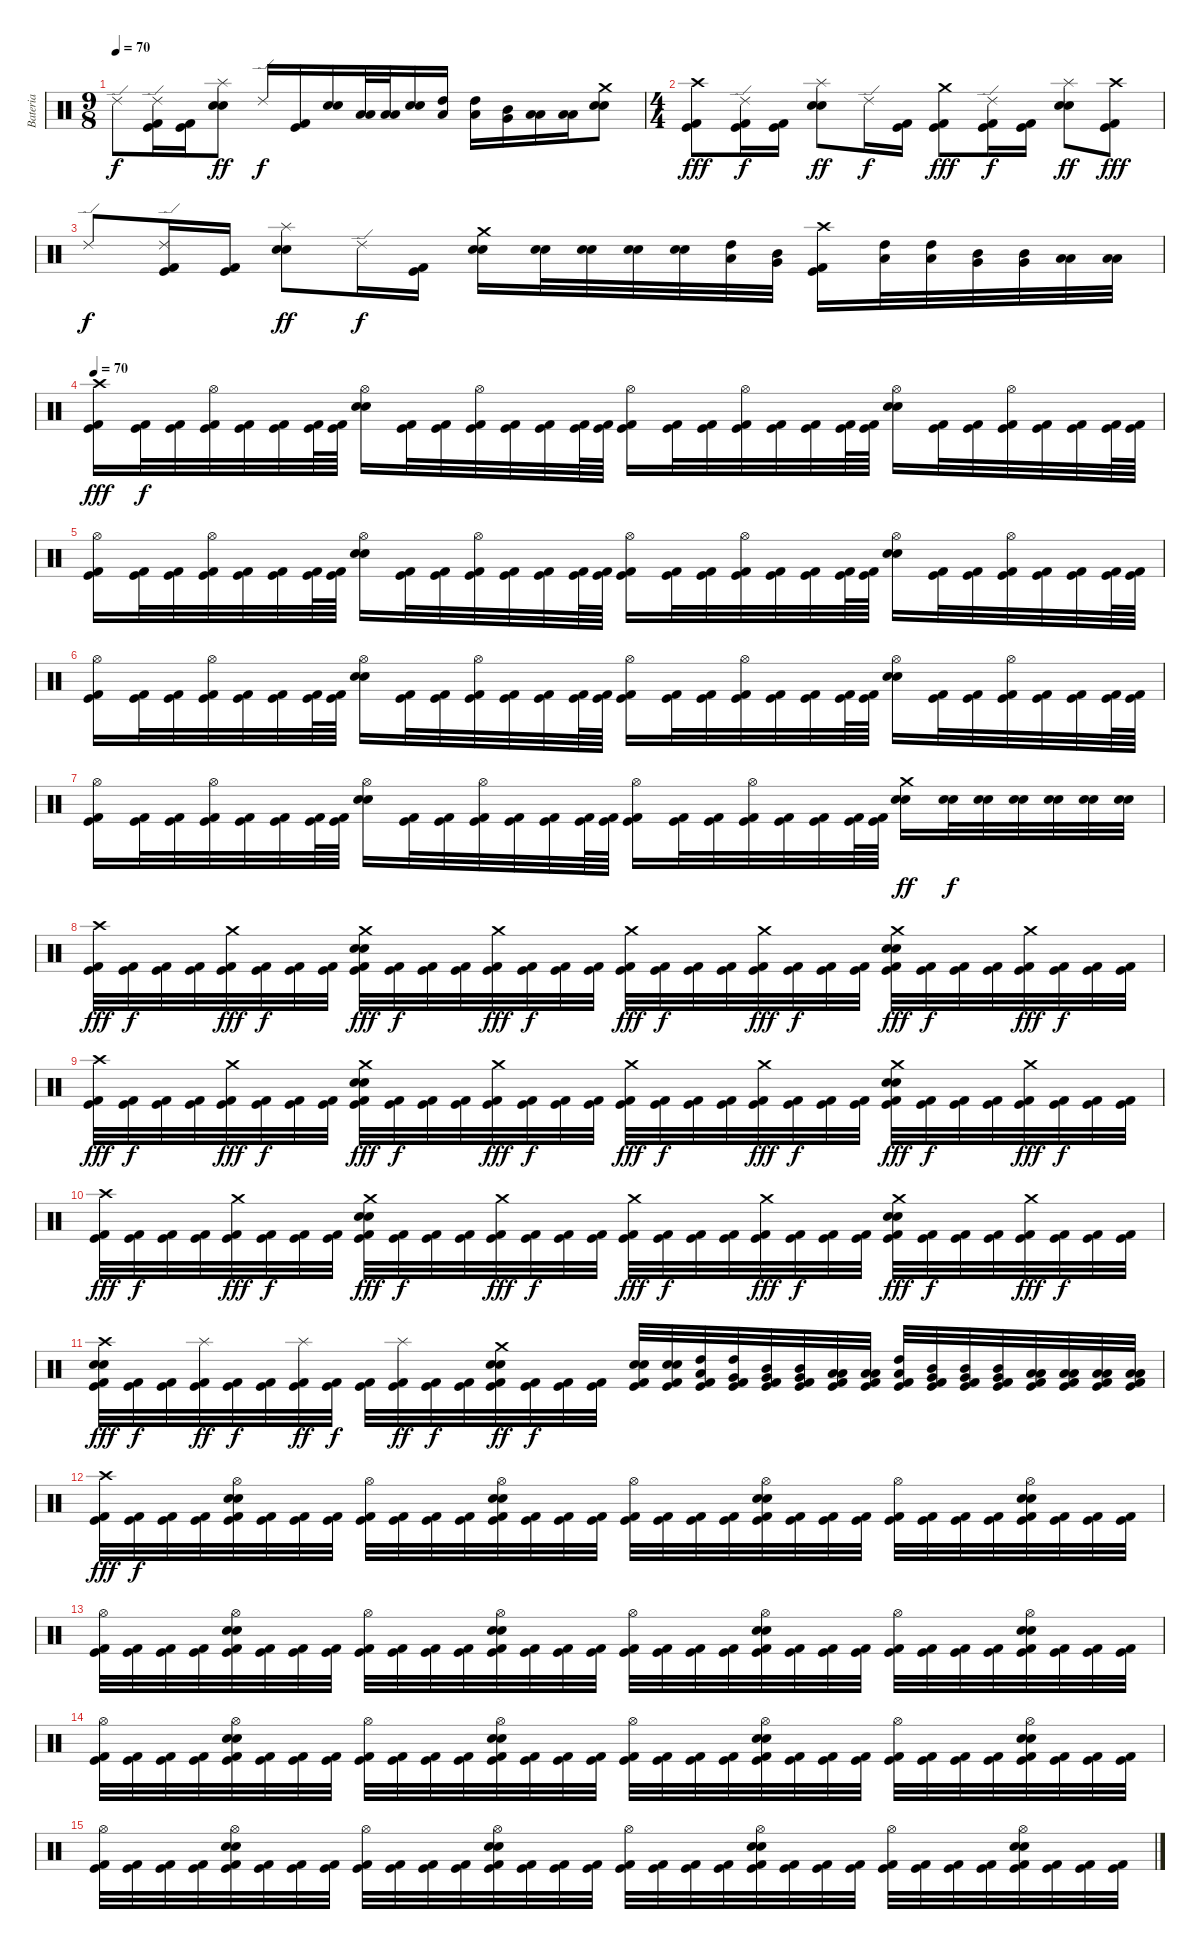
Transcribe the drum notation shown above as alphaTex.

\track ("Bateria" "Bateria") {instrument percussion}
\staff {score}
\articulation defaults
\ts (9 8)
\tempo 70
\clef neutral
\ks c "Ride (edge) 2".8{dy f}
("Ride (edge) 2" "Kick (hit) 2" "Kick (hit)").16 ("Kick (hit) 2" "Kick (hit)").16 ("Splash (hit)" "Electric Snare (hit)" "Snare (hit) 2").8{dy ff} "Ride (edge) 2".16{dy f} ("Kick (hit) 2" "Kick (hit)").16 ("Electric Snare (hit)" "Snare (hit) 2").16 ("Low Tom (hit)" "Low Floor Tom (hit)").32 ("Low Tom (hit)" "Low Floor Tom (hit)").32 ("Electric Snare (hit)" "Snare (hit) 2").16 ("High Tom (hit)" "Low Tom (hit)").16 ("High Tom (hit)" "Low Tom (hit)").16 ("Mid Tom (hit)" "Very Low Tom (hit)").16 ("Low Tom (hit)" "Low Floor Tom (hit)").16 ("Low Tom (hit)" "Low Floor Tom (hit)").16 ("Crash medium (hit)" "Electric Snare (hit)" "Snare (hit) 2").8 |
\ts (4 4)
("Crash high (hit)" "Kick (hit) 2" "Kick (hit)").8{dy fff} ("Ride (edge) 2" "Kick (hit) 2" "Kick (hit)").16{dy f} ("Kick (hit) 2" "Kick (hit)").16 ("Splash (hit)" "Electric Snare (hit)" "Snare (hit) 2").8{dy ff} "Ride (edge) 2".16{dy f} ("Kick (hit) 2" "Kick (hit)").16 ("Crash medium (hit)" "Kick (hit) 2" "Kick (hit)").8{dy fff} ("Ride (edge) 2" "Kick (hit) 2" "Kick (hit)").16{dy f} ("Kick (hit) 2" "Kick (hit)").16 ("Splash (hit)" "Electric Snare (hit)" "Snare (hit) 2").8{dy ff} ("Crash high (hit)" "Kick (hit) 2" "Kick (hit)").8{dy fff} |
"Ride (edge) 2".8{dy f} ("Ride (edge) 2" "Kick (hit) 2" "Kick (hit)").16 ("Kick (hit) 2" "Kick (hit)").16 ("Splash (hit)" "Electric Snare (hit)" "Snare (hit) 2").8{dy ff} "Ride (edge) 2".16{dy f} ("Kick (hit) 2" "Kick (hit)").16 ("Crash medium (hit)" "Electric Snare (hit)" "Snare (hit) 2").16 ("Electric Snare (hit)" "Snare (hit) 2").32 ("Electric Snare (hit)" "Snare (hit) 2").32 ("Electric Snare (hit)" "Snare (hit) 2").32 ("Electric Snare (hit)" "Snare (hit) 2").32 ("High Tom (hit)" "Low Tom (hit)").32 ("Mid Tom (hit)" "Very Low Tom (hit)").32 ("Crash high (hit)" "Kick (hit) 2" "Kick (hit)").16 ("High Tom (hit)" "Low Tom (hit)").32 ("High Tom (hit)" "Low Tom (hit)").32 ("Mid Tom (hit)" "Very Low Tom (hit)").32 ("Mid Tom (hit)" "Very Low Tom (hit)").32 ("Low Tom (hit)" "Low Floor Tom (hit)").32 ("Low Tom (hit)" "Low Floor Tom (hit)").32 |
\tempo 70
("Crash high (hit)" "Kick (hit) 2" "Kick (hit)").16{dy fff} ("Kick (hit) 2" "Kick (hit)").32{dy f} ("Kick (hit) 2" "Kick (hit)").32 ("Hi-Hat (open)" "Kick (hit) 2" "Kick (hit)").32 ("Kick (hit) 2" "Kick (hit)").32 ("Kick (hit) 2" "Kick (hit)").32 ("Kick (hit) 2" "Kick (hit)").64 ("Kick (hit) 2" "Kick (hit)").64 ("Hi-Hat (open)" "Electric Snare (hit)" "Snare (hit) 2").16 ("Kick (hit) 2" "Kick (hit)").32 ("Kick (hit) 2" "Kick (hit)").32 ("Hi-Hat (open)" "Kick (hit) 2" "Kick (hit)").32 ("Kick (hit) 2" "Kick (hit)").32 ("Kick (hit) 2" "Kick (hit)").32 ("Kick (hit) 2" "Kick (hit)").64 ("Kick (hit) 2" "Kick (hit)").64 ("Hi-Hat (open)" "Kick (hit) 2" "Kick (hit)").16 ("Kick (hit) 2" "Kick (hit)").32 ("Kick (hit) 2" "Kick (hit)").32 ("Hi-Hat (open)" "Kick (hit) 2" "Kick (hit)").32 ("Kick (hit) 2" "Kick (hit)").32 ("Kick (hit) 2" "Kick (hit)").32 ("Kick (hit) 2" "Kick (hit)").64 ("Kick (hit) 2" "Kick (hit)").64 ("Hi-Hat (open)" "Electric Snare (hit)" "Snare (hit) 2").16 ("Kick (hit) 2" "Kick (hit)").32 ("Kick (hit) 2" "Kick (hit)").32 ("Hi-Hat (open)" "Kick (hit) 2" "Kick (hit)").32 ("Kick (hit) 2" "Kick (hit)").32 ("Kick (hit) 2" "Kick (hit)").32 ("Kick (hit) 2" "Kick (hit)").64 ("Kick (hit) 2" "Kick (hit)").64 |
("Hi-Hat (open)" "Kick (hit) 2" "Kick (hit)").16 ("Kick (hit) 2" "Kick (hit)").32 ("Kick (hit) 2" "Kick (hit)").32 ("Hi-Hat (open)" "Kick (hit) 2" "Kick (hit)").32 ("Kick (hit) 2" "Kick (hit)").32 ("Kick (hit) 2" "Kick (hit)").32 ("Kick (hit) 2" "Kick (hit)").64 ("Kick (hit) 2" "Kick (hit)").64 ("Hi-Hat (open)" "Electric Snare (hit)" "Snare (hit) 2").16 ("Kick (hit) 2" "Kick (hit)").32 ("Kick (hit) 2" "Kick (hit)").32 ("Hi-Hat (open)" "Kick (hit) 2" "Kick (hit)").32 ("Kick (hit) 2" "Kick (hit)").32 ("Kick (hit) 2" "Kick (hit)").32 ("Kick (hit) 2" "Kick (hit)").64 ("Kick (hit) 2" "Kick (hit)").64 ("Hi-Hat (open)" "Kick (hit) 2" "Kick (hit)").16 ("Kick (hit) 2" "Kick (hit)").32 ("Kick (hit) 2" "Kick (hit)").32 ("Hi-Hat (open)" "Kick (hit) 2" "Kick (hit)").32 ("Kick (hit) 2" "Kick (hit)").32 ("Kick (hit) 2" "Kick (hit)").32 ("Kick (hit) 2" "Kick (hit)").64 ("Kick (hit) 2" "Kick (hit)").64 ("Hi-Hat (open)" "Electric Snare (hit)" "Snare (hit) 2").16 ("Kick (hit) 2" "Kick (hit)").32 ("Kick (hit) 2" "Kick (hit)").32 ("Hi-Hat (open)" "Kick (hit) 2" "Kick (hit)").32 ("Kick (hit) 2" "Kick (hit)").32 ("Kick (hit) 2" "Kick (hit)").32 ("Kick (hit) 2" "Kick (hit)").64 ("Kick (hit) 2" "Kick (hit)").64 |
("Hi-Hat (open)" "Kick (hit) 2" "Kick (hit)").16 ("Kick (hit) 2" "Kick (hit)").32 ("Kick (hit) 2" "Kick (hit)").32 ("Hi-Hat (open)" "Kick (hit) 2" "Kick (hit)").32 ("Kick (hit) 2" "Kick (hit)").32 ("Kick (hit) 2" "Kick (hit)").32 ("Kick (hit) 2" "Kick (hit)").64 ("Kick (hit) 2" "Kick (hit)").64 ("Hi-Hat (open)" "Electric Snare (hit)" "Snare (hit) 2").16 ("Kick (hit) 2" "Kick (hit)").32 ("Kick (hit) 2" "Kick (hit)").32 ("Hi-Hat (open)" "Kick (hit) 2" "Kick (hit)").32 ("Kick (hit) 2" "Kick (hit)").32 ("Kick (hit) 2" "Kick (hit)").32 ("Kick (hit) 2" "Kick (hit)").64 ("Kick (hit) 2" "Kick (hit)").64 ("Hi-Hat (open)" "Kick (hit) 2" "Kick (hit)").16 ("Kick (hit) 2" "Kick (hit)").32 ("Kick (hit) 2" "Kick (hit)").32 ("Hi-Hat (open)" "Kick (hit) 2" "Kick (hit)").32 ("Kick (hit) 2" "Kick (hit)").32 ("Kick (hit) 2" "Kick (hit)").32 ("Kick (hit) 2" "Kick (hit)").64 ("Kick (hit) 2" "Kick (hit)").64 ("Hi-Hat (open)" "Electric Snare (hit)" "Snare (hit) 2").16 ("Kick (hit) 2" "Kick (hit)").32 ("Kick (hit) 2" "Kick (hit)").32 ("Hi-Hat (open)" "Kick (hit) 2" "Kick (hit)").32 ("Kick (hit) 2" "Kick (hit)").32 ("Kick (hit) 2" "Kick (hit)").32 ("Kick (hit) 2" "Kick (hit)").64 ("Kick (hit) 2" "Kick (hit)").64 |
("Hi-Hat (open)" "Kick (hit) 2" "Kick (hit)").16 ("Kick (hit) 2" "Kick (hit)").32 ("Kick (hit) 2" "Kick (hit)").32 ("Hi-Hat (open)" "Kick (hit) 2" "Kick (hit)").32 ("Kick (hit) 2" "Kick (hit)").32 ("Kick (hit) 2" "Kick (hit)").32 ("Kick (hit) 2" "Kick (hit)").64 ("Kick (hit) 2" "Kick (hit)").64 ("Hi-Hat (open)" "Electric Snare (hit)" "Snare (hit) 2").16 ("Kick (hit) 2" "Kick (hit)").32 ("Kick (hit) 2" "Kick (hit)").32 ("Hi-Hat (open)" "Kick (hit) 2" "Kick (hit)").32 ("Kick (hit) 2" "Kick (hit)").32 ("Kick (hit) 2" "Kick (hit)").32 ("Kick (hit) 2" "Kick (hit)").64 ("Kick (hit) 2" "Kick (hit)").64 ("Hi-Hat (open)" "Kick (hit) 2" "Kick (hit)").16 ("Kick (hit) 2" "Kick (hit)").32 ("Kick (hit) 2" "Kick (hit)").32 ("Hi-Hat (open)" "Kick (hit) 2" "Kick (hit)").32 ("Kick (hit) 2" "Kick (hit)").32 ("Kick (hit) 2" "Kick (hit)").32 ("Kick (hit) 2" "Kick (hit)").64 ("Kick (hit) 2" "Kick (hit)").64 ("Crash medium (hit)" "Electric Snare (hit)" "Snare (hit) 2").16{dy ff} ("Electric Snare (hit)" "Snare (hit) 2").32{dy f} ("Electric Snare (hit)" "Snare (hit) 2").32 ("Electric Snare (hit)" "Snare (hit) 2").32 ("Electric Snare (hit)" "Snare (hit) 2").32 ("Electric Snare (hit)" "Snare (hit) 2").32 ("Electric Snare (hit)" "Snare (hit) 2").32 |
("Crash high (hit)" "Kick (hit) 2" "Kick (hit)").32{dy fff} ("Kick (hit) 2" "Kick (hit)").32{dy f} ("Kick (hit) 2" "Kick (hit)").32 ("Kick (hit) 2" "Kick (hit)").32 ("Crash medium (hit)" "Kick (hit) 2" "Kick (hit)").32{dy fff} ("Kick (hit) 2" "Kick (hit)").32{dy f} ("Kick (hit) 2" "Kick (hit)").32 ("Kick (hit) 2" "Kick (hit)").32 ("Crash medium (hit)" "Electric Snare (hit)" "Snare (hit) 2" "Kick (hit) 2" "Kick (hit)").32{dy fff} ("Kick (hit) 2" "Kick (hit)").32{dy f} ("Kick (hit) 2" "Kick (hit)").32 ("Kick (hit) 2" "Kick (hit)").32 ("Crash medium (hit)" "Kick (hit) 2" "Kick (hit)").32{dy fff} ("Kick (hit) 2" "Kick (hit)").32{dy f} ("Kick (hit) 2" "Kick (hit)").32 ("Kick (hit) 2" "Kick (hit)").32 ("Crash medium (hit)" "Kick (hit) 2" "Kick (hit)").32{dy fff} ("Kick (hit) 2" "Kick (hit)").32{dy f} ("Kick (hit) 2" "Kick (hit)").32 ("Kick (hit) 2" "Kick (hit)").32 ("Crash medium (hit)" "Kick (hit) 2" "Kick (hit)").32{dy fff} ("Kick (hit) 2" "Kick (hit)").32{dy f} ("Kick (hit) 2" "Kick (hit)").32 ("Kick (hit) 2" "Kick (hit)").32 ("Crash medium (hit)" "Electric Snare (hit)" "Snare (hit) 2" "Kick (hit) 2" "Kick (hit)").32{dy fff} ("Kick (hit) 2" "Kick (hit)").32{dy f} ("Kick (hit) 2" "Kick (hit)").32 ("Kick (hit) 2" "Kick (hit)").32 ("Crash medium (hit)" "Kick (hit) 2" "Kick (hit)").32{dy fff} ("Kick (hit) 2" "Kick (hit)").32{dy f} ("Kick (hit) 2" "Kick (hit)").32 ("Kick (hit) 2" "Kick (hit)").32 |
("Crash high (hit)" "Kick (hit) 2" "Kick (hit)").32{dy fff volume 13} ("Kick (hit) 2" "Kick (hit)").32{dy f} ("Kick (hit) 2" "Kick (hit)").32 ("Kick (hit) 2" "Kick (hit)").32 ("Crash medium (hit)" "Kick (hit) 2" "Kick (hit)").32{dy fff} ("Kick (hit) 2" "Kick (hit)").32{dy f} ("Kick (hit) 2" "Kick (hit)").32 ("Kick (hit) 2" "Kick (hit)").32 ("Crash medium (hit)" "Electric Snare (hit)" "Snare (hit) 2" "Kick (hit) 2" "Kick (hit)").32{dy fff} ("Kick (hit) 2" "Kick (hit)").32{dy f} ("Kick (hit) 2" "Kick (hit)").32 ("Kick (hit) 2" "Kick (hit)").32 ("Crash medium (hit)" "Kick (hit) 2" "Kick (hit)").32{dy fff} ("Kick (hit) 2" "Kick (hit)").32{dy f} ("Kick (hit) 2" "Kick (hit)").32 ("Kick (hit) 2" "Kick (hit)").32 ("Crash medium (hit)" "Kick (hit) 2" "Kick (hit)").32{dy fff} ("Kick (hit) 2" "Kick (hit)").32{dy f} ("Kick (hit) 2" "Kick (hit)").32 ("Kick (hit) 2" "Kick (hit)").32 ("Crash medium (hit)" "Kick (hit) 2" "Kick (hit)").32{dy fff} ("Kick (hit) 2" "Kick (hit)").32{dy f} ("Kick (hit) 2" "Kick (hit)").32 ("Kick (hit) 2" "Kick (hit)").32 ("Crash medium (hit)" "Electric Snare (hit)" "Snare (hit) 2" "Kick (hit) 2" "Kick (hit)").32{dy fff} ("Kick (hit) 2" "Kick (hit)").32{dy f} ("Kick (hit) 2" "Kick (hit)").32 ("Kick (hit) 2" "Kick (hit)").32 ("Crash medium (hit)" "Kick (hit) 2" "Kick (hit)").32{dy fff} ("Kick (hit) 2" "Kick (hit)").32{dy f} ("Kick (hit) 2" "Kick (hit)").32 ("Kick (hit) 2" "Kick (hit)").32 |
("Crash high (hit)" "Kick (hit) 2" "Kick (hit)").32{dy fff} ("Kick (hit) 2" "Kick (hit)").32{dy f} ("Kick (hit) 2" "Kick (hit)").32 ("Kick (hit) 2" "Kick (hit)").32 ("Crash medium (hit)" "Kick (hit) 2" "Kick (hit)").32{dy fff} ("Kick (hit) 2" "Kick (hit)").32{dy f} ("Kick (hit) 2" "Kick (hit)").32 ("Kick (hit) 2" "Kick (hit)").32 ("Crash medium (hit)" "Electric Snare (hit)" "Snare (hit) 2" "Kick (hit) 2" "Kick (hit)").32{dy fff} ("Kick (hit) 2" "Kick (hit)").32{dy f} ("Kick (hit) 2" "Kick (hit)").32 ("Kick (hit) 2" "Kick (hit)").32 ("Crash medium (hit)" "Kick (hit) 2" "Kick (hit)").32{dy fff} ("Kick (hit) 2" "Kick (hit)").32{dy f} ("Kick (hit) 2" "Kick (hit)").32 ("Kick (hit) 2" "Kick (hit)").32 ("Crash medium (hit)" "Kick (hit) 2" "Kick (hit)").32{dy fff} ("Kick (hit) 2" "Kick (hit)").32{dy f} ("Kick (hit) 2" "Kick (hit)").32 ("Kick (hit) 2" "Kick (hit)").32 ("Crash medium (hit)" "Kick (hit) 2" "Kick (hit)").32{dy fff} ("Kick (hit) 2" "Kick (hit)").32{dy f} ("Kick (hit) 2" "Kick (hit)").32 ("Kick (hit) 2" "Kick (hit)").32 ("Crash medium (hit)" "Electric Snare (hit)" "Snare (hit) 2" "Kick (hit) 2" "Kick (hit)").32{dy fff} ("Kick (hit) 2" "Kick (hit)").32{dy f} ("Kick (hit) 2" "Kick (hit)").32 ("Kick (hit) 2" "Kick (hit)").32 ("Crash medium (hit)" "Kick (hit) 2" "Kick (hit)").32{dy fff} ("Kick (hit) 2" "Kick (hit)").32{dy f} ("Kick (hit) 2" "Kick (hit)").32 ("Kick (hit) 2" "Kick (hit)").32 |
("Crash high (hit)" "Electric Snare (hit)" "Snare (hit) 2" "Kick (hit) 2" "Kick (hit)").32{dy fff volume 10} ("Kick (hit) 2" "Kick (hit)").32{dy f} ("Kick (hit) 2" "Kick (hit)").32 ("Splash (hit)" "Kick (hit) 2" "Kick (hit)").32{dy ff} ("Kick (hit) 2" "Kick (hit)").32{dy f} ("Kick (hit) 2" "Kick (hit)").32 ("Splash (hit)" "Kick (hit) 2" "Kick (hit)").32{dy ff} ("Kick (hit) 2" "Kick (hit)").32{dy f} ("Kick (hit) 2" "Kick (hit)").32 ("Splash (hit)" "Kick (hit) 2" "Kick (hit)").32{dy ff} ("Kick (hit) 2" "Kick (hit)").32{dy f} ("Kick (hit) 2" "Kick (hit)").32 ("Crash medium (hit)" "Electric Snare (hit)" "Snare (hit) 2" "Kick (hit) 2" "Kick (hit)").32{dy ff} ("Kick (hit) 2" "Kick (hit)").32{dy f} ("Kick (hit) 2" "Kick (hit)").32 ("Kick (hit) 2" "Kick (hit)").32 ("Electric Snare (hit)" "Snare (hit) 2" "Kick (hit) 2" "Kick (hit)").32 ("Electric Snare (hit)" "Snare (hit) 2" "Kick (hit) 2" "Kick (hit)").32 ("High Tom (hit)" "Low Tom (hit)" "Kick (hit) 2" "Kick (hit)").32 ("High Tom (hit)" "Very Low Tom (hit)" "Kick (hit) 2" "Kick (hit)").32 ("Mid Tom (hit)" "Very Low Tom (hit)" "Kick (hit) 2" "Kick (hit)").32 ("Mid Tom (hit)" "Very Low Tom (hit)" "Kick (hit) 2" "Kick (hit)").32 ("Low Tom (hit)" "Low Floor Tom (hit)" "Kick (hit) 2" "Kick (hit)").32 ("Low Tom (hit)" "Low Floor Tom (hit)" "Kick (hit) 2" "Kick (hit)").32 ("High Tom (hit)" "Low Tom (hit)" "Kick (hit) 2" "Kick (hit)").32 ("Mid Tom (hit)" "Very Low Tom (hit)" "Kick (hit) 2" "Kick (hit)").32 ("Mid Tom (hit)" "Very Low Tom (hit)" "Kick (hit) 2" "Kick (hit)").32 ("Mid Tom (hit)" "Very Low Tom (hit)" "Kick (hit) 2" "Kick (hit)").32 ("Low Tom (hit)" "Low Floor Tom (hit)" "Kick (hit) 2" "Kick (hit)").32 ("Low Tom (hit)" "Low Floor Tom (hit)" "Kick (hit) 2" "Kick (hit)").32 ("Low Tom (hit)" "Low Floor Tom (hit)" "Kick (hit) 2" "Kick (hit)").32 ("Low Tom (hit)" "Low Floor Tom (hit)" "Kick (hit) 2" "Kick (hit)").32 |
("Crash high (hit)" "Kick (hit) 2" "Kick (hit)").32{dy fff} ("Kick (hit) 2" "Kick (hit)").32{dy f} ("Kick (hit) 2" "Kick (hit)").32 ("Kick (hit) 2" "Kick (hit)").32 ("Hi-Hat (open)" "Electric Snare (hit)" "Snare (hit) 2" "Kick (hit) 2" "Kick (hit)").32 ("Kick (hit) 2" "Kick (hit)").32 ("Kick (hit) 2" "Kick (hit)").32 ("Kick (hit) 2" "Kick (hit)").32 ("Hi-Hat (open)" "Kick (hit) 2" "Kick (hit)").32 ("Kick (hit) 2" "Kick (hit)").32 ("Kick (hit) 2" "Kick (hit)").32 ("Kick (hit) 2" "Kick (hit)").32 ("Hi-Hat (open)" "Electric Snare (hit)" "Snare (hit) 2" "Kick (hit) 2" "Kick (hit)").32 ("Kick (hit) 2" "Kick (hit)").32 ("Kick (hit) 2" "Kick (hit)").32 ("Kick (hit) 2" "Kick (hit)").32 ("Hi-Hat (open)" "Kick (hit) 2" "Kick (hit)").32 ("Kick (hit) 2" "Kick (hit)").32 ("Kick (hit) 2" "Kick (hit)").32 ("Kick (hit) 2" "Kick (hit)").32 ("Hi-Hat (open)" "Electric Snare (hit)" "Snare (hit) 2" "Kick (hit) 2" "Kick (hit)").32 ("Kick (hit) 2" "Kick (hit)").32 ("Kick (hit) 2" "Kick (hit)").32 ("Kick (hit) 2" "Kick (hit)").32 ("Hi-Hat (open)" "Kick (hit) 2" "Kick (hit)").32{volume 5} ("Kick (hit) 2" "Kick (hit)").32 ("Kick (hit) 2" "Kick (hit)").32 ("Kick (hit) 2" "Kick (hit)").32 ("Hi-Hat (open)" "Electric Snare (hit)" "Snare (hit) 2" "Kick (hit) 2" "Kick (hit)").32 ("Kick (hit) 2" "Kick (hit)").32 ("Kick (hit) 2" "Kick (hit)").32 ("Kick (hit) 2" "Kick (hit)").32 |
("Hi-Hat (open)" "Kick (hit) 2" "Kick (hit)").32 ("Kick (hit) 2" "Kick (hit)").32 ("Kick (hit) 2" "Kick (hit)").32 ("Kick (hit) 2" "Kick (hit)").32 ("Hi-Hat (open)" "Electric Snare (hit)" "Snare (hit) 2" "Kick (hit) 2" "Kick (hit)").32 ("Kick (hit) 2" "Kick (hit)").32 ("Kick (hit) 2" "Kick (hit)").32 ("Kick (hit) 2" "Kick (hit)").32 ("Hi-Hat (open)" "Kick (hit) 2" "Kick (hit)").32 ("Kick (hit) 2" "Kick (hit)").32 ("Kick (hit) 2" "Kick (hit)").32 ("Kick (hit) 2" "Kick (hit)").32 ("Hi-Hat (open)" "Electric Snare (hit)" "Snare (hit) 2" "Kick (hit) 2" "Kick (hit)").32 ("Kick (hit) 2" "Kick (hit)").32 ("Kick (hit) 2" "Kick (hit)").32 ("Kick (hit) 2" "Kick (hit)").32 ("Hi-Hat (open)" "Kick (hit) 2" "Kick (hit)").32 ("Kick (hit) 2" "Kick (hit)").32 ("Kick (hit) 2" "Kick (hit)").32 ("Kick (hit) 2" "Kick (hit)").32 ("Hi-Hat (open)" "Electric Snare (hit)" "Snare (hit) 2" "Kick (hit) 2" "Kick (hit)").32 ("Kick (hit) 2" "Kick (hit)").32 ("Kick (hit) 2" "Kick (hit)").32 ("Kick (hit) 2" "Kick (hit)").32 ("Hi-Hat (open)" "Kick (hit) 2" "Kick (hit)").32 ("Kick (hit) 2" "Kick (hit)").32 ("Kick (hit) 2" "Kick (hit)").32 ("Kick (hit) 2" "Kick (hit)").32 ("Hi-Hat (open)" "Electric Snare (hit)" "Snare (hit) 2" "Kick (hit) 2" "Kick (hit)").32 ("Kick (hit) 2" "Kick (hit)").32 ("Kick (hit) 2" "Kick (hit)").32 ("Kick (hit) 2" "Kick (hit)").32 |
("Hi-Hat (open)" "Kick (hit) 2" "Kick (hit)").32{volume 0} ("Kick (hit) 2" "Kick (hit)").32 ("Kick (hit) 2" "Kick (hit)").32 ("Kick (hit) 2" "Kick (hit)").32 ("Hi-Hat (open)" "Electric Snare (hit)" "Snare (hit) 2" "Kick (hit) 2" "Kick (hit)").32 ("Kick (hit) 2" "Kick (hit)").32 ("Kick (hit) 2" "Kick (hit)").32 ("Kick (hit) 2" "Kick (hit)").32 ("Hi-Hat (open)" "Kick (hit) 2" "Kick (hit)").32 ("Kick (hit) 2" "Kick (hit)").32 ("Kick (hit) 2" "Kick (hit)").32 ("Kick (hit) 2" "Kick (hit)").32 ("Hi-Hat (open)" "Electric Snare (hit)" "Snare (hit) 2" "Kick (hit) 2" "Kick (hit)").32 ("Kick (hit) 2" "Kick (hit)").32 ("Kick (hit) 2" "Kick (hit)").32 ("Kick (hit) 2" "Kick (hit)").32 ("Hi-Hat (open)" "Kick (hit) 2" "Kick (hit)").32 ("Kick (hit) 2" "Kick (hit)").32 ("Kick (hit) 2" "Kick (hit)").32 ("Kick (hit) 2" "Kick (hit)").32 ("Hi-Hat (open)" "Electric Snare (hit)" "Snare (hit) 2" "Kick (hit) 2" "Kick (hit)").32 ("Kick (hit) 2" "Kick (hit)").32 ("Kick (hit) 2" "Kick (hit)").32 ("Kick (hit) 2" "Kick (hit)").32 ("Hi-Hat (open)" "Kick (hit) 2" "Kick (hit)").32 ("Kick (hit) 2" "Kick (hit)").32 ("Kick (hit) 2" "Kick (hit)").32 ("Kick (hit) 2" "Kick (hit)").32 ("Hi-Hat (open)" "Electric Snare (hit)" "Snare (hit) 2" "Kick (hit) 2" "Kick (hit)").32 ("Kick (hit) 2" "Kick (hit)").32 ("Kick (hit) 2" "Kick (hit)").32 ("Kick (hit) 2" "Kick (hit)").32 |
("Hi-Hat (open)" "Kick (hit) 2" "Kick (hit)").32 ("Kick (hit) 2" "Kick (hit)").32 ("Kick (hit) 2" "Kick (hit)").32 ("Kick (hit) 2" "Kick (hit)").32 ("Hi-Hat (open)" "Electric Snare (hit)" "Snare (hit) 2" "Kick (hit) 2" "Kick (hit)").32 ("Kick (hit) 2" "Kick (hit)").32 ("Kick (hit) 2" "Kick (hit)").32 ("Kick (hit) 2" "Kick (hit)").32 ("Hi-Hat (open)" "Kick (hit) 2" "Kick (hit)").32 ("Kick (hit) 2" "Kick (hit)").32 ("Kick (hit) 2" "Kick (hit)").32 ("Kick (hit) 2" "Kick (hit)").32 ("Hi-Hat (open)" "Electric Snare (hit)" "Snare (hit) 2" "Kick (hit) 2" "Kick (hit)").32 ("Kick (hit) 2" "Kick (hit)").32 ("Kick (hit) 2" "Kick (hit)").32 ("Kick (hit) 2" "Kick (hit)").32 ("Hi-Hat (open)" "Kick (hit) 2" "Kick (hit)").32 ("Kick (hit) 2" "Kick (hit)").32 ("Kick (hit) 2" "Kick (hit)").32 ("Kick (hit) 2" "Kick (hit)").32 ("Hi-Hat (open)" "Electric Snare (hit)" "Snare (hit) 2" "Kick (hit) 2" "Kick (hit)").32 ("Kick (hit) 2" "Kick (hit)").32 ("Kick (hit) 2" "Kick (hit)").32 ("Kick (hit) 2" "Kick (hit)").32 ("Hi-Hat (open)" "Kick (hit) 2" "Kick (hit)").32 ("Kick (hit) 2" "Kick (hit)").32 ("Kick (hit) 2" "Kick (hit)").32 ("Kick (hit) 2" "Kick (hit)").32 ("Hi-Hat (open)" "Electric Snare (hit)" "Snare (hit) 2" "Kick (hit) 2" "Kick (hit)").32 ("Kick (hit) 2" "Kick (hit)").32 ("Kick (hit) 2" "Kick (hit)").32 ("Kick (hit) 2" "Kick (hit)").32
